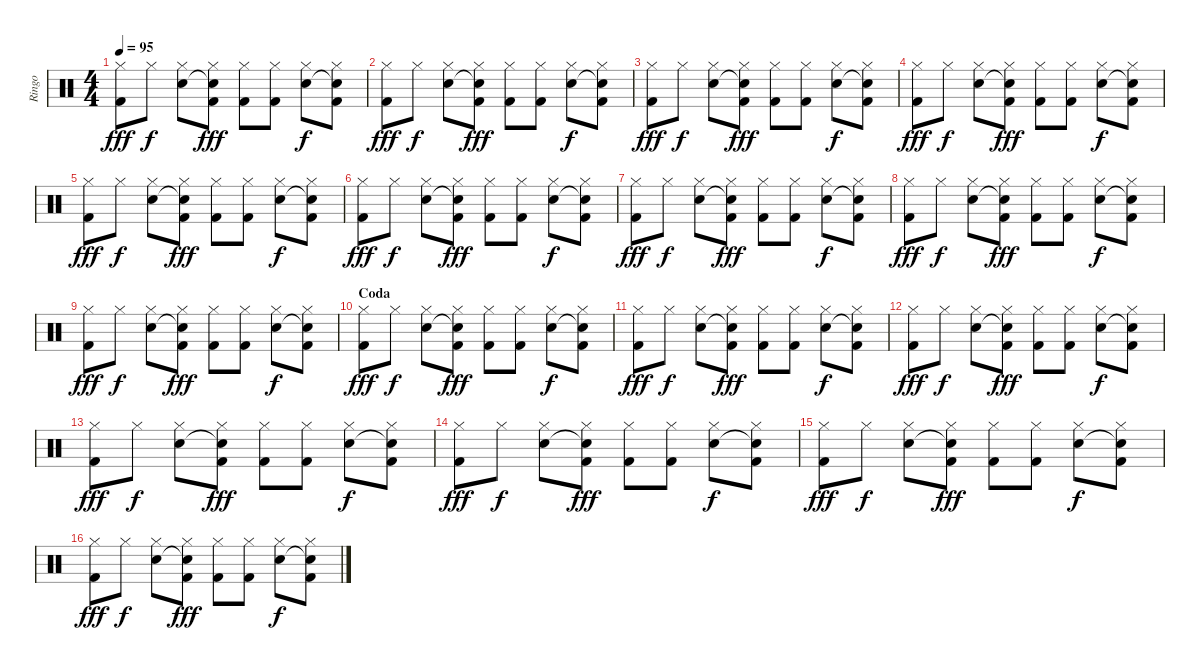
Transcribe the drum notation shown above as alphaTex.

\track ("Ringo" "Ringo") {instrument percussion}
\staff {score}
\articulation defaults
\ts (4 4)
\tempo 95
\clef neutral
\ks c
("Hi-Hat (closed)" "Kick (hit) 2").8{dy fff} "Hi-Hat (closed)".8{dy f} ("Hi-Hat (closed)" "Snare (hit) 2").8 ("Hi-Hat (closed)" "Snare (hit)"{t} "Kick (hit) 2").8{dy fff} ("Hi-Hat (closed)" "Kick (hit) 2").8 ("Hi-Hat (closed)" "Kick (hit) 2").8 ("Hi-Hat (closed)" "Snare (hit) 2").8{dy f} ("Hi-Hat (closed)" "Snare (hit)"{t} "Kick (hit) 2").8 |
("Hi-Hat (closed)" "Kick (hit) 2").8{dy fff} "Hi-Hat (closed)".8{dy f} ("Hi-Hat (closed)" "Snare (hit) 2").8 ("Hi-Hat (closed)" "Snare (hit)"{t} "Kick (hit) 2").8{dy fff} ("Hi-Hat (closed)" "Kick (hit) 2").8 ("Hi-Hat (closed)" "Kick (hit) 2").8 ("Hi-Hat (closed)" "Snare (hit) 2").8{dy f} ("Hi-Hat (closed)" "Snare (hit)"{t} "Kick (hit) 2").8 |
("Hi-Hat (closed)" "Kick (hit) 2").8{dy fff} "Hi-Hat (closed)".8{dy f} ("Hi-Hat (closed)" "Snare (hit) 2").8 ("Hi-Hat (closed)" "Snare (hit)"{t} "Kick (hit) 2").8{dy fff} ("Hi-Hat (closed)" "Kick (hit) 2").8 ("Hi-Hat (closed)" "Kick (hit) 2").8 ("Hi-Hat (closed)" "Snare (hit) 2").8{dy f} ("Hi-Hat (closed)" "Snare (hit)"{t} "Kick (hit) 2").8 |
("Hi-Hat (closed)" "Kick (hit) 2").8{dy fff} "Hi-Hat (closed)".8{dy f} ("Hi-Hat (closed)" "Snare (hit) 2").8 ("Hi-Hat (closed)" "Snare (hit)"{t} "Kick (hit) 2").8{dy fff} ("Hi-Hat (closed)" "Kick (hit) 2").8 ("Hi-Hat (closed)" "Kick (hit) 2").8 ("Hi-Hat (closed)" "Snare (hit) 2").8{dy f} ("Hi-Hat (closed)" "Snare (hit)"{t} "Kick (hit) 2").8 |
("Hi-Hat (closed)" "Kick (hit) 2").8{dy fff} "Hi-Hat (closed)".8{dy f} ("Hi-Hat (closed)" "Snare (hit) 2").8 ("Hi-Hat (closed)" "Snare (hit)"{t} "Kick (hit) 2").8{dy fff} ("Hi-Hat (closed)" "Kick (hit) 2").8 ("Hi-Hat (closed)" "Kick (hit) 2").8 ("Hi-Hat (closed)" "Snare (hit) 2").8{dy f} ("Hi-Hat (closed)" "Snare (hit)"{t} "Kick (hit) 2").8 |
("Hi-Hat (closed)" "Kick (hit) 2").8{dy fff} "Hi-Hat (closed)".8{dy f} ("Hi-Hat (closed)" "Snare (hit) 2").8 ("Hi-Hat (closed)" "Snare (hit)"{t} "Kick (hit) 2").8{dy fff} ("Hi-Hat (closed)" "Kick (hit) 2").8 ("Hi-Hat (closed)" "Kick (hit) 2").8 ("Hi-Hat (closed)" "Snare (hit) 2").8{dy f} ("Hi-Hat (closed)" "Snare (hit)"{t} "Kick (hit) 2").8 |
("Hi-Hat (closed)" "Kick (hit) 2").8{dy fff} "Hi-Hat (closed)".8{dy f} ("Hi-Hat (closed)" "Snare (hit) 2").8 ("Hi-Hat (closed)" "Snare (hit)"{t} "Kick (hit) 2").8{dy fff} ("Hi-Hat (closed)" "Kick (hit) 2").8 ("Hi-Hat (closed)" "Kick (hit) 2").8 ("Hi-Hat (closed)" "Snare (hit) 2").8{dy f} ("Hi-Hat (closed)" "Snare (hit)"{t} "Kick (hit) 2").8 |
("Hi-Hat (closed)" "Kick (hit) 2").8{dy fff} "Hi-Hat (closed)".8{dy f} ("Hi-Hat (closed)" "Snare (hit) 2").8 ("Hi-Hat (closed)" "Snare (hit)"{t} "Kick (hit) 2").8{dy fff} ("Hi-Hat (closed)" "Kick (hit) 2").8 ("Hi-Hat (closed)" "Kick (hit) 2").8 ("Hi-Hat (closed)" "Snare (hit) 2").8{dy f} ("Hi-Hat (closed)" "Snare (hit)"{t} "Kick (hit) 2").8 |
("Hi-Hat (closed)" "Kick (hit) 2").8{dy fff} "Hi-Hat (closed)".8{dy f} ("Hi-Hat (closed)" "Snare (hit) 2").8 ("Hi-Hat (closed)" "Snare (hit)"{t} "Kick (hit) 2").8{dy fff} ("Hi-Hat (closed)" "Kick (hit) 2").8 ("Hi-Hat (closed)" "Kick (hit) 2").8 ("Hi-Hat (closed)" "Snare (hit) 2").8{dy f} ("Hi-Hat (closed)" "Snare (hit)"{t} "Kick (hit) 2").8 |
\section ("" "Coda")
("Hi-Hat (closed)" "Kick (hit) 2").8{dy fff} "Hi-Hat (closed)".8{dy f} ("Hi-Hat (closed)" "Snare (hit) 2").8 ("Hi-Hat (closed)" "Snare (hit)"{t} "Kick (hit) 2").8{dy fff} ("Hi-Hat (closed)" "Kick (hit) 2").8 ("Hi-Hat (closed)" "Kick (hit) 2").8 ("Hi-Hat (closed)" "Snare (hit) 2").8{dy f} ("Hi-Hat (closed)" "Snare (hit)"{t} "Kick (hit) 2").8 |
("Hi-Hat (closed)" "Kick (hit) 2").8{dy fff} "Hi-Hat (closed)".8{dy f} ("Hi-Hat (closed)" "Snare (hit) 2").8 ("Hi-Hat (closed)" "Snare (hit)"{t} "Kick (hit) 2").8{dy fff} ("Hi-Hat (closed)" "Kick (hit) 2").8 ("Hi-Hat (closed)" "Kick (hit) 2").8 ("Hi-Hat (closed)" "Snare (hit) 2").8{dy f} ("Hi-Hat (closed)" "Snare (hit)"{t} "Kick (hit) 2").8 |
("Hi-Hat (closed)" "Kick (hit) 2").8{dy fff} "Hi-Hat (closed)".8{dy f} ("Hi-Hat (closed)" "Snare (hit) 2").8 ("Hi-Hat (closed)" "Snare (hit)"{t} "Kick (hit) 2").8{dy fff} ("Hi-Hat (closed)" "Kick (hit) 2").8 ("Hi-Hat (closed)" "Kick (hit) 2").8 ("Hi-Hat (closed)" "Snare (hit) 2").8{dy f} ("Hi-Hat (closed)" "Snare (hit)"{t} "Kick (hit) 2").8 |
("Hi-Hat (closed)" "Kick (hit) 2").8{dy fff} "Hi-Hat (closed)".8{dy f} ("Hi-Hat (closed)" "Snare (hit) 2").8 ("Hi-Hat (closed)" "Snare (hit)"{t} "Kick (hit) 2").8{dy fff} ("Hi-Hat (closed)" "Kick (hit) 2").8 ("Hi-Hat (closed)" "Kick (hit) 2").8 ("Hi-Hat (closed)" "Snare (hit) 2").8{dy f} ("Hi-Hat (closed)" "Snare (hit)"{t} "Kick (hit) 2").8 |
("Hi-Hat (closed)" "Kick (hit) 2").8{dy fff} "Hi-Hat (closed)".8{dy f} ("Hi-Hat (closed)" "Snare (hit) 2").8 ("Hi-Hat (closed)" "Snare (hit)"{t} "Kick (hit) 2").8{dy fff} ("Hi-Hat (closed)" "Kick (hit) 2").8 ("Hi-Hat (closed)" "Kick (hit) 2").8 ("Hi-Hat (closed)" "Snare (hit) 2").8{dy f} ("Hi-Hat (closed)" "Snare (hit)"{t} "Kick (hit) 2").8 |
("Hi-Hat (closed)" "Kick (hit) 2").8{dy fff} "Hi-Hat (closed)".8{dy f} ("Hi-Hat (closed)" "Snare (hit) 2").8 ("Hi-Hat (closed)" "Snare (hit)"{t} "Kick (hit) 2").8{dy fff} ("Hi-Hat (closed)" "Kick (hit) 2").8 ("Hi-Hat (closed)" "Kick (hit) 2").8 ("Hi-Hat (closed)" "Snare (hit) 2").8{dy f} ("Hi-Hat (closed)" "Snare (hit)"{t} "Kick (hit) 2").8 |
("Hi-Hat (closed)" "Kick (hit) 2").8{dy fff} "Hi-Hat (closed)".8{dy f} ("Hi-Hat (closed)" "Snare (hit) 2").8 ("Hi-Hat (closed)" "Snare (hit)"{t} "Kick (hit) 2").8{dy fff} ("Hi-Hat (closed)" "Kick (hit) 2").8 ("Hi-Hat (closed)" "Kick (hit) 2").8 ("Hi-Hat (closed)" "Snare (hit) 2").8{dy f} ("Hi-Hat (closed)" "Snare (hit)"{t} "Kick (hit) 2").8
